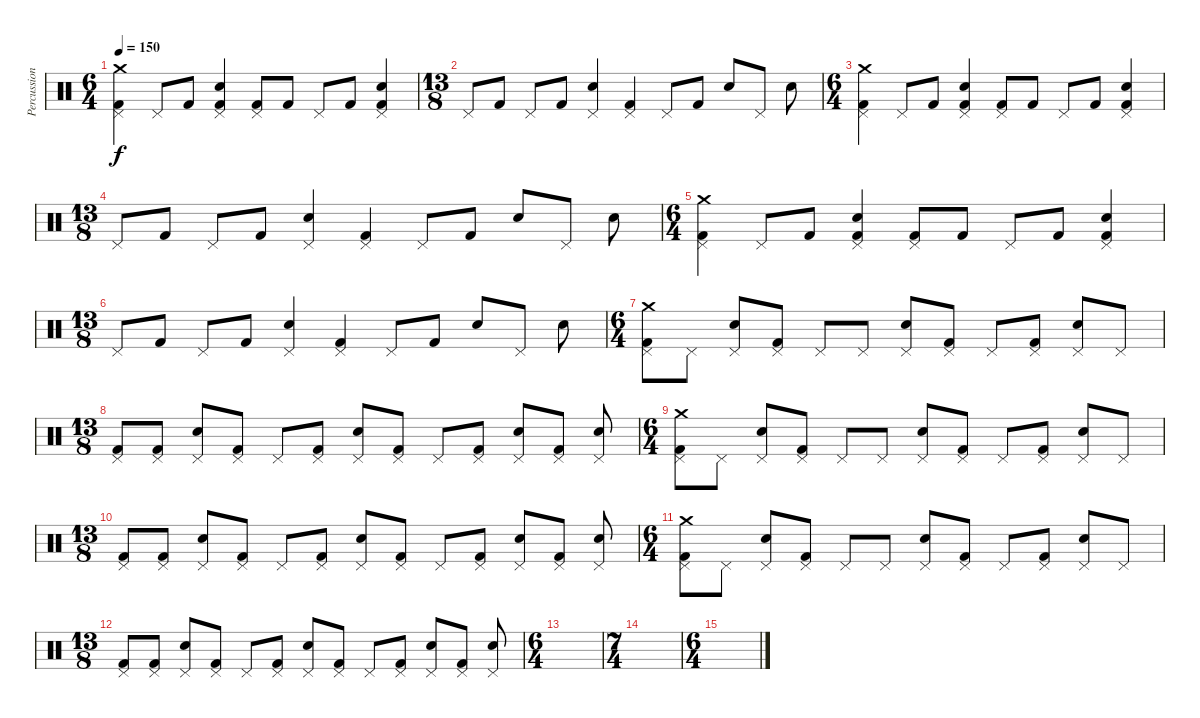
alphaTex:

\track ("Percussion" "Percussion") {instrument percussion}
\staff {score}
\articulation defaults
\ts (6 4)
\tempo 150
\clef neutral
\ks c
("Crash medium (hit)" "Pedal Hi-Hat (hit)" "Kick (hit) 2").4{dy f} "Pedal Hi-Hat (hit)".8 "Kick (hit) 2".8 ("Pedal Hi-Hat (hit)" "Electric Snare (hit)" "Kick (hit) 2").4 ("Pedal Hi-Hat (hit)" "Kick (hit) 2").8 "Kick (hit) 2".8 "Pedal Hi-Hat (hit)".8 "Kick (hit) 2".8 ("Pedal Hi-Hat (hit)" "Electric Snare (hit)" "Kick (hit) 2").4 |
\ts (13 8)
"Pedal Hi-Hat (hit)".8 "Kick (hit) 2".8 "Pedal Hi-Hat (hit)".8 "Kick (hit) 2".8 ("Pedal Hi-Hat (hit)" "Electric Snare (hit)").4 ("Pedal Hi-Hat (hit)" "Kick (hit) 2").4 "Pedal Hi-Hat (hit)".8 "Kick (hit) 2".8 "Electric Snare (hit)".8 "Pedal Hi-Hat (hit)".8 "Electric Snare (hit)".8 |
\ts (6 4)
("Crash medium (hit)" "Pedal Hi-Hat (hit)" "Kick (hit) 2").4 "Pedal Hi-Hat (hit)".8 "Kick (hit) 2".8 ("Pedal Hi-Hat (hit)" "Electric Snare (hit)" "Kick (hit) 2").4 ("Pedal Hi-Hat (hit)" "Kick (hit) 2").8 "Kick (hit) 2".8 "Pedal Hi-Hat (hit)".8 "Kick (hit) 2".8 ("Pedal Hi-Hat (hit)" "Electric Snare (hit)" "Kick (hit) 2").4 |
\ts (13 8)
"Pedal Hi-Hat (hit)".8 "Kick (hit) 2".8 "Pedal Hi-Hat (hit)".8 "Kick (hit) 2".8 ("Pedal Hi-Hat (hit)" "Electric Snare (hit)").4 ("Pedal Hi-Hat (hit)" "Kick (hit) 2").4 "Pedal Hi-Hat (hit)".8 "Kick (hit) 2".8 "Electric Snare (hit)".8 "Pedal Hi-Hat (hit)".8 "Electric Snare (hit)".8 |
\ts (6 4)
("Crash medium (hit)" "Pedal Hi-Hat (hit)" "Kick (hit) 2").4 "Pedal Hi-Hat (hit)".8 "Kick (hit) 2".8 ("Pedal Hi-Hat (hit)" "Electric Snare (hit)" "Kick (hit) 2").4 ("Pedal Hi-Hat (hit)" "Kick (hit) 2").8 "Kick (hit) 2".8 "Pedal Hi-Hat (hit)".8 "Kick (hit) 2".8 ("Pedal Hi-Hat (hit)" "Electric Snare (hit)" "Kick (hit) 2").4 |
\ts (13 8)
"Pedal Hi-Hat (hit)".8 "Kick (hit) 2".8 "Pedal Hi-Hat (hit)".8 "Kick (hit) 2".8 ("Pedal Hi-Hat (hit)" "Electric Snare (hit)").4 ("Pedal Hi-Hat (hit)" "Kick (hit) 2").4 "Pedal Hi-Hat (hit)".8 "Kick (hit) 2".8 "Electric Snare (hit)".8 "Pedal Hi-Hat (hit)".8 "Electric Snare (hit)".8 |
\ts (6 4)
("Crash medium (hit)" "Pedal Hi-Hat (hit)" "Kick (hit) 2").8 "Pedal Hi-Hat (hit)".8 ("Pedal Hi-Hat (hit)" "Electric Snare (hit)").8 ("Pedal Hi-Hat (hit)" "Kick (hit) 2").8 "Pedal Hi-Hat (hit)".8 "Pedal Hi-Hat (hit)".8 ("Pedal Hi-Hat (hit)" "Electric Snare (hit)").8 ("Pedal Hi-Hat (hit)" "Kick (hit) 2").8 "Pedal Hi-Hat (hit)".8 ("Pedal Hi-Hat (hit)" "Kick (hit) 2").8 ("Pedal Hi-Hat (hit)" "Electric Snare (hit)").8 "Pedal Hi-Hat (hit)".8 |
\ts (13 8)
("Pedal Hi-Hat (hit)" "Kick (hit) 2").8 ("Pedal Hi-Hat (hit)" "Kick (hit) 2").8 ("Pedal Hi-Hat (hit)" "Electric Snare (hit)").8 ("Pedal Hi-Hat (hit)" "Kick (hit) 2").8 "Pedal Hi-Hat (hit)".8 ("Pedal Hi-Hat (hit)" "Kick (hit) 2").8 ("Pedal Hi-Hat (hit)" "Electric Snare (hit)").8 ("Pedal Hi-Hat (hit)" "Kick (hit) 2").8 "Pedal Hi-Hat (hit)".8 ("Pedal Hi-Hat (hit)" "Kick (hit) 2").8 ("Pedal Hi-Hat (hit)" "Electric Snare (hit)").8 ("Pedal Hi-Hat (hit)" "Kick (hit) 2").8 ("Pedal Hi-Hat (hit)" "Electric Snare (hit)").8 |
\ts (6 4)
("Crash medium (hit)" "Pedal Hi-Hat (hit)" "Kick (hit) 2").8 "Pedal Hi-Hat (hit)".8 ("Pedal Hi-Hat (hit)" "Electric Snare (hit)").8 ("Pedal Hi-Hat (hit)" "Kick (hit) 2").8 "Pedal Hi-Hat (hit)".8 "Pedal Hi-Hat (hit)".8 ("Pedal Hi-Hat (hit)" "Electric Snare (hit)").8 ("Pedal Hi-Hat (hit)" "Kick (hit) 2").8 "Pedal Hi-Hat (hit)".8 ("Pedal Hi-Hat (hit)" "Kick (hit) 2").8 ("Pedal Hi-Hat (hit)" "Electric Snare (hit)").8 "Pedal Hi-Hat (hit)".8 |
\ts (13 8)
("Pedal Hi-Hat (hit)" "Kick (hit) 2").8 ("Pedal Hi-Hat (hit)" "Kick (hit) 2").8 ("Pedal Hi-Hat (hit)" "Electric Snare (hit)").8 ("Pedal Hi-Hat (hit)" "Kick (hit) 2").8 "Pedal Hi-Hat (hit)".8 ("Pedal Hi-Hat (hit)" "Kick (hit) 2").8 ("Pedal Hi-Hat (hit)" "Electric Snare (hit)").8 ("Pedal Hi-Hat (hit)" "Kick (hit) 2").8 "Pedal Hi-Hat (hit)".8 ("Pedal Hi-Hat (hit)" "Kick (hit) 2").8 ("Pedal Hi-Hat (hit)" "Electric Snare (hit)").8 ("Pedal Hi-Hat (hit)" "Kick (hit) 2").8 ("Pedal Hi-Hat (hit)" "Electric Snare (hit)").8 |
\ts (6 4)
("Crash medium (hit)" "Pedal Hi-Hat (hit)" "Kick (hit) 2").8 "Pedal Hi-Hat (hit)".8 ("Pedal Hi-Hat (hit)" "Electric Snare (hit)").8 ("Pedal Hi-Hat (hit)" "Kick (hit) 2").8 "Pedal Hi-Hat (hit)".8 "Pedal Hi-Hat (hit)".8 ("Pedal Hi-Hat (hit)" "Electric Snare (hit)").8 ("Pedal Hi-Hat (hit)" "Kick (hit) 2").8 "Pedal Hi-Hat (hit)".8 ("Pedal Hi-Hat (hit)" "Kick (hit) 2").8 ("Pedal Hi-Hat (hit)" "Electric Snare (hit)").8 "Pedal Hi-Hat (hit)".8 |
\ts (13 8)
("Pedal Hi-Hat (hit)" "Kick (hit) 2").8 ("Pedal Hi-Hat (hit)" "Kick (hit) 2").8 ("Pedal Hi-Hat (hit)" "Electric Snare (hit)").8 ("Pedal Hi-Hat (hit)" "Kick (hit) 2").8 "Pedal Hi-Hat (hit)".8 ("Pedal Hi-Hat (hit)" "Kick (hit) 2").8 ("Pedal Hi-Hat (hit)" "Electric Snare (hit)").8 ("Pedal Hi-Hat (hit)" "Kick (hit) 2").8 "Pedal Hi-Hat (hit)".8 ("Pedal Hi-Hat (hit)" "Kick (hit) 2").8 ("Pedal Hi-Hat (hit)" "Electric Snare (hit)").8 ("Pedal Hi-Hat (hit)" "Kick (hit) 2").8 ("Pedal Hi-Hat (hit)" "Electric Snare (hit)").8 |
\ts (6 4)
|
\ts (7 4)
|
\ts (6 4)
